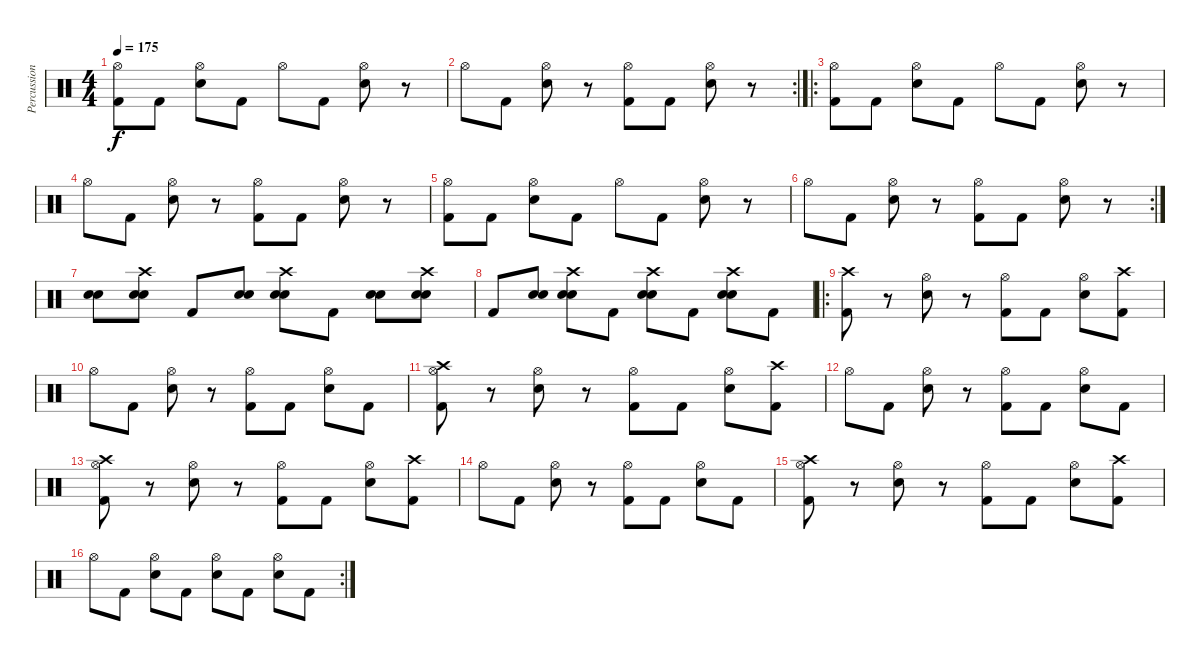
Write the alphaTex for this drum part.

\track ("Percussion" "Percussion") {instrument percussion}
\staff {score}
\articulation defaults
\ts (4 4)
\tempo 175
\clef neutral
\ks c
("Hi-Hat (open)" "Kick (hit) 2").8{dy f} "Kick (hit) 2".8 ("Hi-Hat (open)" "Snare (hit) 2").8 "Kick (hit) 2".8 "Hi-Hat (open)".8 "Kick (hit) 2".8 ("Hi-Hat (open)" "Snare (hit) 2").8 r.8 |
\rc 2 "Hi-Hat (open)".8 "Kick (hit) 2".8
("Hi-Hat (open)" "Snare (hit) 2").8 r.8 ("Hi-Hat (open)" "Kick (hit) 2").8 "Kick (hit) 2".8 ("Hi-Hat (open)" "Snare (hit) 2").8 r.8 |
\ro
("Hi-Hat (open)" "Kick (hit) 2").8 "Kick (hit) 2".8 ("Hi-Hat (open)" "Snare (hit) 2").8 "Kick (hit) 2".8 "Hi-Hat (open)".8 "Kick (hit) 2".8 ("Hi-Hat (open)" "Snare (hit) 2").8 r.8 |
"Hi-Hat (open)".8 "Kick (hit) 2".8 ("Hi-Hat (open)" "Snare (hit) 2").8 r.8 ("Hi-Hat (open)" "Kick (hit) 2").8 "Kick (hit) 2".8 ("Hi-Hat (open)" "Snare (hit) 2").8 r.8 |
("Hi-Hat (open)" "Kick (hit) 2").8 "Kick (hit) 2".8 ("Hi-Hat (open)" "Snare (hit) 2").8 "Kick (hit) 2".8 "Hi-Hat (open)".8 "Kick (hit) 2".8 ("Hi-Hat (open)" "Snare (hit) 2").8 r.8 |
\rc 2 "Hi-Hat (open)".8 "Kick (hit) 2".8
("Hi-Hat (open)" "Snare (hit) 2").8 r.8 ("Hi-Hat (open)" "Kick (hit) 2").8 "Kick (hit) 2".8 ("Hi-Hat (open)" "Snare (hit) 2").8 r.8 |
("Hand Clap (hit)" "Snare (hit) 2").8 ("Hand Clap (hit)" "Crash high (hit)" "Snare (hit) 2").8 "Kick (hit) 2".8 ("Hand Clap (hit)" "Snare (hit) 2").8 ("Hand Clap (hit)" "Crash high (hit)" "Snare (hit) 2").8 "Kick (hit) 2".8 ("Hand Clap (hit)" "Snare (hit) 2").8 ("Hand Clap (hit)" "Crash high (hit)" "Snare (hit) 2").8 |
"Kick (hit) 2".8 ("Hand Clap (hit)" "Snare (hit) 2").8 ("Hand Clap (hit)" "Crash high (hit)" "Snare (hit) 2").8 "Kick (hit) 2".8 ("Hand Clap (hit)" "Crash high (hit)" "Snare (hit) 2").8 "Kick (hit) 2".8 ("Hand Clap (hit)" "Crash high (hit)" "Snare (hit) 2").8 "Kick (hit) 2".8 |
\ro
("Crash high (hit)" "Kick (hit) 2").8 r.8 ("Hi-Hat (open)" "Snare (hit) 2").8 r.8 ("Hi-Hat (open)" "Kick (hit) 2").8 "Kick (hit) 2".8 ("Hi-Hat (open)" "Snare (hit) 2").8 ("Crash high (hit)" "Kick (hit) 2").8 |
"Hi-Hat (open)".8 "Kick (hit) 2".8 ("Hi-Hat (open)" "Snare (hit) 2").8 r.8 ("Hi-Hat (open)" "Kick (hit) 2").8 "Kick (hit) 2".8 ("Hi-Hat (open)" "Snare (hit) 2").8 "Kick (hit) 2".8 |
("Crash high (hit)" "Hi-Hat (open)" "Kick (hit) 2").8 r.8 ("Hi-Hat (open)" "Snare (hit) 2").8 r.8 ("Hi-Hat (open)" "Kick (hit) 2").8 "Kick (hit) 2".8 ("Hi-Hat (open)" "Snare (hit) 2").8 ("Crash high (hit)" "Kick (hit) 2").8 |
"Hi-Hat (open)".8 "Kick (hit) 2".8 ("Hi-Hat (open)" "Snare (hit) 2").8 r.8 ("Hi-Hat (open)" "Kick (hit) 2").8 "Kick (hit) 2".8 ("Hi-Hat (open)" "Snare (hit) 2").8 "Kick (hit) 2".8 |
("Crash high (hit)" "Hi-Hat (open)" "Kick (hit) 2").8 r.8 ("Hi-Hat (open)" "Snare (hit) 2").8 r.8 ("Hi-Hat (open)" "Kick (hit) 2").8 "Kick (hit) 2".8 ("Hi-Hat (open)" "Snare (hit) 2").8 ("Crash high (hit)" "Kick (hit) 2").8 |
"Hi-Hat (open)".8 "Kick (hit) 2".8 ("Hi-Hat (open)" "Snare (hit) 2").8 r.8 ("Hi-Hat (open)" "Kick (hit) 2").8 "Kick (hit) 2".8 ("Hi-Hat (open)" "Snare (hit) 2").8 "Kick (hit) 2".8 |
("Crash high (hit)" "Hi-Hat (open)" "Kick (hit) 2").8 r.8 ("Hi-Hat (open)" "Snare (hit) 2").8 r.8 ("Hi-Hat (open)" "Kick (hit) 2").8 "Kick (hit) 2".8 ("Hi-Hat (open)" "Snare (hit) 2").8 ("Crash high (hit)" "Kick (hit) 2").8 |
\rc 2 "Hi-Hat (open)".8 "Kick (hit) 2".8
("Hi-Hat (open)" "Snare (hit) 2").8 "Kick (hit) 2".8 ("Hi-Hat (open)" "Snare (hit) 2").8 "Kick (hit) 2".8 ("Hi-Hat (open)" "Snare (hit) 2").8 "Kick (hit) 2".8
